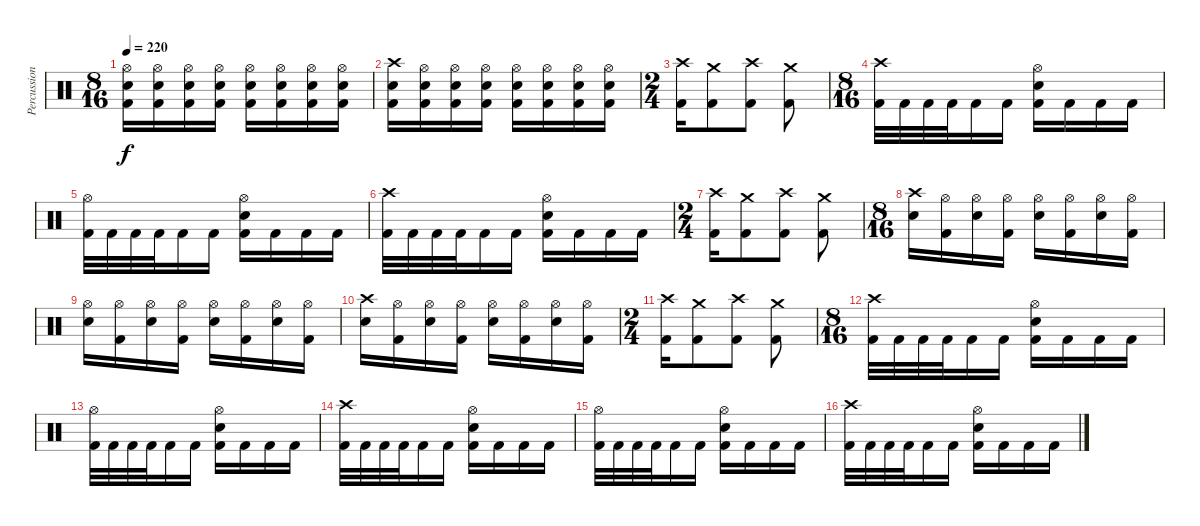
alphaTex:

\track ("Percussion" "Percussion") {instrument percussion}
\staff {score}
\articulation defaults
\ts (8 16)
\tempo 220
\clef neutral
\ks c
("Hi-Hat (open)" "Kick (hit) 2" "Electric Snare (hit)").16{dy f} ("Hi-Hat (open)" "Kick (hit) 2" "Electric Snare (hit)").16 ("Hi-Hat (open)" "Kick (hit) 2" "Electric Snare (hit)").16 ("Hi-Hat (open)" "Kick (hit) 2" "Electric Snare (hit)").16 ("Hi-Hat (open)" "Kick (hit) 2" "Electric Snare (hit)").16 ("Hi-Hat (open)" "Kick (hit) 2" "Electric Snare (hit)").16 ("Hi-Hat (open)" "Kick (hit) 2" "Electric Snare (hit)").16 ("Hi-Hat (open)" "Kick (hit) 2" "Electric Snare (hit)").16 |
("Crash high (hit)" "Kick (hit) 2" "Electric Snare (hit)").16 ("Hi-Hat (open)" "Kick (hit) 2" "Electric Snare (hit)").16 ("Hi-Hat (open)" "Kick (hit) 2" "Electric Snare (hit)").16 ("Hi-Hat (open)" "Kick (hit) 2" "Electric Snare (hit)").16 ("Hi-Hat (open)" "Kick (hit) 2" "Electric Snare (hit)").16 ("Hi-Hat (open)" "Kick (hit) 2" "Electric Snare (hit)").16 ("Hi-Hat (open)" "Kick (hit) 2" "Electric Snare (hit)").16 ("Hi-Hat (open)" "Kick (hit) 2" "Electric Snare (hit)").16 |
\ts (2 4)
("Crash high (hit)" "Kick (hit) 2").16 ("Crash medium (hit)" "Kick (hit) 2").8 ("Crash high (hit)" "Kick (hit) 2").8 ("Crash medium (hit)" "Kick (hit) 2").8 |
\ts (8 16)
("Crash high (hit)" "Kick (hit) 2").32 "Kick (hit) 2".32 "Kick (hit) 2".32 "Kick (hit) 2".32 "Kick (hit) 2".16 "Kick (hit) 2".16 ("Hi-Hat (open)" "Electric Snare (hit)" "Kick (hit) 2").16 "Kick (hit) 2".16 "Kick (hit) 2".16 "Kick (hit) 2".16 |
("Hi-Hat (open)" "Kick (hit) 2").32 "Kick (hit) 2".32 "Kick (hit) 2".32 "Kick (hit) 2".32 "Kick (hit) 2".16 "Kick (hit) 2".16 ("Hi-Hat (open)" "Electric Snare (hit)" "Kick (hit) 2").16 "Kick (hit) 2".16 "Kick (hit) 2".16 "Kick (hit) 2".16 |
("Crash high (hit)" "Kick (hit) 2").32 "Kick (hit) 2".32 "Kick (hit) 2".32 "Kick (hit) 2".32 "Kick (hit) 2".16 "Kick (hit) 2".16 ("Hi-Hat (open)" "Electric Snare (hit)" "Kick (hit) 2").16 "Kick (hit) 2".16 "Kick (hit) 2".16 "Kick (hit) 2".16 |
\ts (2 4)
("Crash high (hit)" "Kick (hit) 2").16 ("Crash medium (hit)" "Kick (hit) 2").8 ("Crash high (hit)" "Kick (hit) 2").8 ("Crash medium (hit)" "Kick (hit) 2").8 |
\ts (8 16)
("Crash high (hit)" "Electric Snare (hit)").16 ("Hi-Hat (open)" "Kick (hit) 2").16 ("Hi-Hat (open)" "Electric Snare (hit)").16 ("Hi-Hat (open)" "Kick (hit) 2").16 ("Hi-Hat (open)" "Electric Snare (hit)").16 ("Hi-Hat (open)" "Kick (hit) 2").16 ("Hi-Hat (open)" "Electric Snare (hit)").16 ("Hi-Hat (open)" "Kick (hit) 2").16 |
("Hi-Hat (open)" "Electric Snare (hit)").16 ("Hi-Hat (open)" "Kick (hit) 2").16 ("Hi-Hat (open)" "Electric Snare (hit)").16 ("Hi-Hat (open)" "Kick (hit) 2").16 ("Hi-Hat (open)" "Electric Snare (hit)").16 ("Hi-Hat (open)" "Kick (hit) 2").16 ("Hi-Hat (open)" "Electric Snare (hit)").16 ("Hi-Hat (open)" "Kick (hit) 2").16 |
("Crash high (hit)" "Electric Snare (hit)").16 ("Hi-Hat (open)" "Kick (hit) 2").16 ("Hi-Hat (open)" "Electric Snare (hit)").16 ("Hi-Hat (open)" "Kick (hit) 2").16 ("Hi-Hat (open)" "Electric Snare (hit)").16 ("Hi-Hat (open)" "Kick (hit) 2").16 ("Hi-Hat (open)" "Electric Snare (hit)").16 ("Hi-Hat (open)" "Kick (hit) 2").16 |
\ts (2 4)
("Crash high (hit)" "Kick (hit) 2").16 ("Crash medium (hit)" "Kick (hit) 2").8 ("Crash high (hit)" "Kick (hit) 2").8 ("Crash medium (hit)" "Kick (hit) 2").8 |
\ts (8 16)
("Crash high (hit)" "Kick (hit) 2").32 "Kick (hit) 2".32 "Kick (hit) 2".32 "Kick (hit) 2".32 "Kick (hit) 2".16 "Kick (hit) 2".16 ("Hi-Hat (open)" "Electric Snare (hit)" "Kick (hit) 2").16 "Kick (hit) 2".16 "Kick (hit) 2".16 "Kick (hit) 2".16 |
("Hi-Hat (open)" "Kick (hit) 2").32 "Kick (hit) 2".32 "Kick (hit) 2".32 "Kick (hit) 2".32 "Kick (hit) 2".16 "Kick (hit) 2".16 ("Hi-Hat (open)" "Electric Snare (hit)" "Kick (hit) 2").16 "Kick (hit) 2".16 "Kick (hit) 2".16 "Kick (hit) 2".16 |
("Crash high (hit)" "Kick (hit) 2").32 "Kick (hit) 2".32 "Kick (hit) 2".32 "Kick (hit) 2".32 "Kick (hit) 2".16 "Kick (hit) 2".16 ("Hi-Hat (open)" "Electric Snare (hit)" "Kick (hit) 2").16 "Kick (hit) 2".16 "Kick (hit) 2".16 "Kick (hit) 2".16 |
("Hi-Hat (open)" "Kick (hit) 2").32 "Kick (hit) 2".32 "Kick (hit) 2".32 "Kick (hit) 2".32 "Kick (hit) 2".16 "Kick (hit) 2".16 ("Hi-Hat (open)" "Electric Snare (hit)" "Kick (hit) 2").16 "Kick (hit) 2".16 "Kick (hit) 2".16 "Kick (hit) 2".16 |
("Crash high (hit)" "Kick (hit) 2").32 "Kick (hit) 2".32 "Kick (hit) 2".32 "Kick (hit) 2".32 "Kick (hit) 2".16 "Kick (hit) 2".16 ("Hi-Hat (open)" "Electric Snare (hit)" "Kick (hit) 2").16 "Kick (hit) 2".16 "Kick (hit) 2".16 "Kick (hit) 2".16
